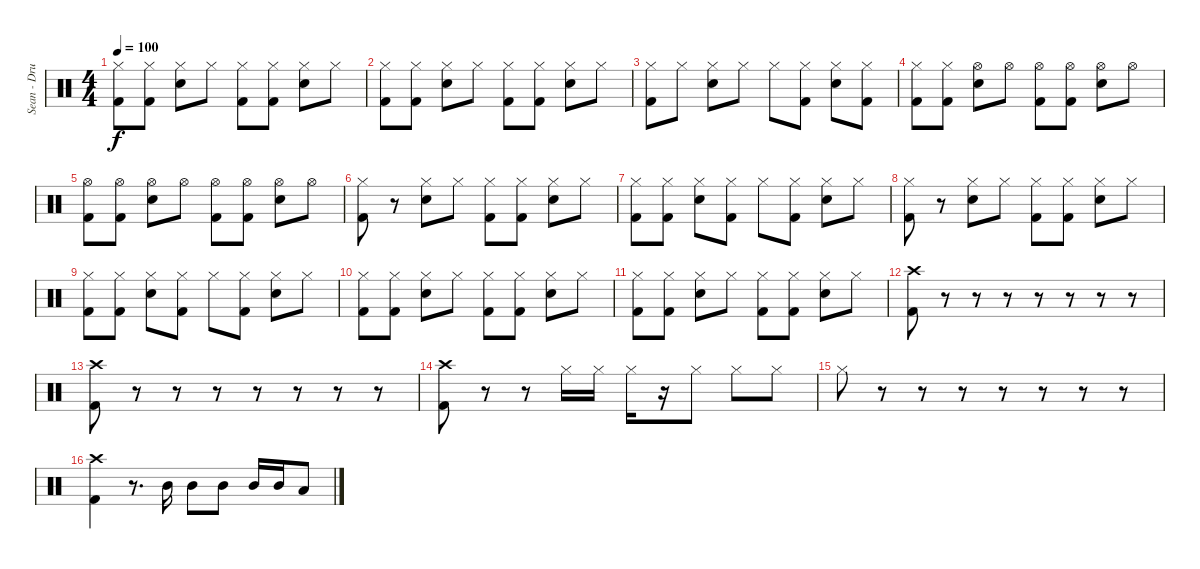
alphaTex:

\track ("Sean - Drums" "Sean - Dru") {instrument percussion}
\staff {score}
\articulation defaults
\ts (4 4)
\tempo 100
\clef neutral
\ks c
("Hi-Hat (closed)" "Kick (hit) 2").8{dy f} ("Hi-Hat (closed)" "Kick (hit) 2").8 ("Hi-Hat (closed)" "Electric Snare (hit)").8 "Hi-Hat (closed)".8 ("Hi-Hat (closed)" "Kick (hit) 2").8 ("Hi-Hat (closed)" "Kick (hit) 2").8 ("Hi-Hat (closed)" "Electric Snare (hit)").8 "Hi-Hat (closed)".8 |
("Hi-Hat (closed)" "Kick (hit) 2").8 ("Hi-Hat (closed)" "Kick (hit) 2").8 ("Hi-Hat (closed)" "Electric Snare (hit)").8 "Hi-Hat (closed)".8 ("Hi-Hat (closed)" "Kick (hit) 2").8 ("Hi-Hat (closed)" "Kick (hit) 2").8 ("Hi-Hat (closed)" "Electric Snare (hit)").8 "Hi-Hat (closed)".8 |
("Hi-Hat (closed)" "Kick (hit) 2").8 "Hi-Hat (closed)".8 ("Hi-Hat (closed)" "Electric Snare (hit)").8 "Hi-Hat (closed)".8 "Hi-Hat (closed)".8 ("Hi-Hat (closed)" "Kick (hit) 2").8 ("Hi-Hat (closed)" "Electric Snare (hit)").8 ("Hi-Hat (closed)" "Kick (hit) 2").8 |
("Hi-Hat (closed)" "Kick (hit) 2").8 ("Hi-Hat (closed)" "Kick (hit) 2").8 ("Hi-Hat (open)" "Electric Snare (hit)").8 "Hi-Hat (open)".8 ("Hi-Hat (open)" "Kick (hit) 2").8 ("Hi-Hat (open)" "Kick (hit) 2").8 ("Hi-Hat (open)" "Electric Snare (hit)").8 "Hi-Hat (open)".8 |
("Hi-Hat (open)" "Kick (hit) 2").8 ("Hi-Hat (open)" "Kick (hit) 2").8 ("Hi-Hat (open)" "Electric Snare (hit)").8 "Hi-Hat (open)".8 ("Hi-Hat (open)" "Kick (hit) 2").8 ("Hi-Hat (open)" "Kick (hit) 2").8 ("Hi-Hat (open)" "Electric Snare (hit)").8 "Hi-Hat (open)".8 |
("Hi-Hat (closed)" "Kick (hit) 2").8 r.8 ("Hi-Hat (closed)" "Electric Snare (hit)").8 "Hi-Hat (closed)".8 ("Hi-Hat (closed)" "Kick (hit) 2").8 ("Hi-Hat (closed)" "Kick (hit) 2").8 ("Hi-Hat (closed)" "Electric Snare (hit)").8 "Hi-Hat (closed)".8 |
("Hi-Hat (closed)" "Kick (hit) 2").8 ("Hi-Hat (closed)" "Kick (hit) 2").8 ("Hi-Hat (closed)" "Electric Snare (hit)").8 ("Hi-Hat (closed)" "Kick (hit) 2").8 "Hi-Hat (closed)".8 ("Hi-Hat (closed)" "Kick (hit) 2").8 ("Hi-Hat (closed)" "Electric Snare (hit)").8 "Hi-Hat (closed)".8 |
("Hi-Hat (closed)" "Kick (hit) 2").8 r.8 ("Hi-Hat (closed)" "Electric Snare (hit)").8 "Hi-Hat (closed)".8 ("Hi-Hat (closed)" "Kick (hit) 2").8 ("Hi-Hat (closed)" "Kick (hit) 2").8 ("Hi-Hat (closed)" "Electric Snare (hit)").8 "Hi-Hat (closed)".8 |
("Hi-Hat (closed)" "Kick (hit) 2").8 ("Hi-Hat (closed)" "Kick (hit) 2").8 ("Hi-Hat (closed)" "Electric Snare (hit)").8 ("Hi-Hat (closed)" "Kick (hit) 2").8 "Hi-Hat (closed)".8 ("Hi-Hat (closed)" "Kick (hit) 2").8 ("Hi-Hat (closed)" "Electric Snare (hit)").8 "Hi-Hat (closed)".8 |
("Hi-Hat (closed)" "Kick (hit) 2").8 ("Hi-Hat (closed)" "Kick (hit) 2").8 ("Hi-Hat (closed)" "Electric Snare (hit)").8 "Hi-Hat (closed)".8 ("Hi-Hat (closed)" "Kick (hit) 2").8 ("Hi-Hat (closed)" "Kick (hit) 2").8 ("Hi-Hat (closed)" "Electric Snare (hit)").8 "Hi-Hat (closed)".8 |
("Hi-Hat (closed)" "Kick (hit) 2").8 ("Hi-Hat (closed)" "Kick (hit) 2").8 ("Hi-Hat (closed)" "Electric Snare (hit)").8 "Hi-Hat (closed)".8 ("Hi-Hat (closed)" "Kick (hit) 2").8 ("Hi-Hat (closed)" "Kick (hit) 2").8 ("Hi-Hat (closed)" "Electric Snare (hit)").8 "Hi-Hat (closed)".8 |
("Crash high (hit)" "Kick (hit) 2").8 r.8 r.8 r.8 r.8 r.8 r.8 r.8 |
("Crash high (hit)" "Kick (hit) 2").8 r.8 r.8 r.8 r.8 r.8 r.8 r.8 |
("Crash high (hit)" "Kick (hit) 2").8 r.8 r.8 "Hi-Hat (closed)".16 "Hi-Hat (closed)".16 "Hi-Hat (closed)".16 r.16 "Hi-Hat (closed)".8 "Hi-Hat (closed)".8 "Hi-Hat (closed)".8 |
"Hi-Hat (closed)".8 r.8 r.8 r.8 r.8 r.8 r.8 r.8 |
("Crash high (hit)" "Kick (hit) 2").4 r.8{d} "Mid Tom (hit)".16 "Mid Tom (hit)".8 "Mid Tom (hit)".8 "Mid Tom (hit)".16 "Mid Tom (hit)".16 "Low Tom (hit)".8
